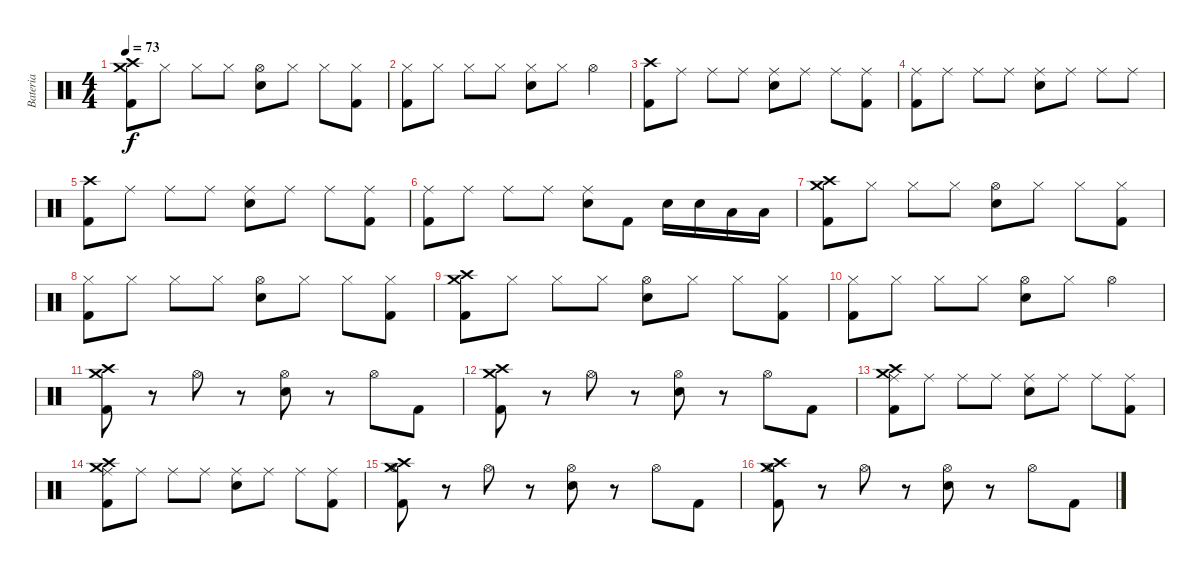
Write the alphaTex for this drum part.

\track ("Bateria" "Bateria") {instrument percussion}
\staff {score}
\articulation defaults
\ts (4 4)
\tempo 73
\clef neutral
\ks c
("Crash high (hit)" "Crash medium (hit)" "Kick (hit) 2").8{dy f} "Hi-Hat (closed)".8 "Hi-Hat (closed)".8 "Hi-Hat (closed)".8 ("Hi-Hat (open)" "Snare (hit) 2").8 "Hi-Hat (closed)".8 "Hi-Hat (closed)".8 ("Hi-Hat (closed)" "Kick (hit) 2").8 |
("Hi-Hat (closed)" "Kick (hit) 2").8 "Hi-Hat (closed)".8 "Hi-Hat (closed)".8 "Hi-Hat (closed)".8 ("Hi-Hat (closed)" "Snare (hit) 2").8 "Hi-Hat (closed)".8 "Hi-Hat (open)".4 |
("Crash high (hit)" "Kick (hit) 2").8 "Ride (middle)".8 "Ride (middle)".8 "Ride (middle)".8 ("Ride (middle)" "Snare (hit) 2").8 "Ride (middle)".8 "Ride (middle)".8 ("Ride (middle)" "Kick (hit) 2").8 |
("Ride (middle)" "Kick (hit) 2").8 "Ride (middle)".8 "Ride (middle)".8 "Ride (middle)".8 ("Ride (middle)" "Snare (hit) 2").8 "Ride (middle)".8 "Ride (middle)".8 "Ride (middle)".8 |
("Crash high (hit)" "Kick (hit) 2").8 "Ride (middle)".8 "Ride (middle)".8 "Ride (middle)".8 ("Ride (middle)" "Snare (hit) 2").8 "Ride (middle)".8 "Ride (middle)".8 ("Ride (middle)" "Kick (hit) 2").8 |
("Ride (middle)" "Kick (hit) 2").8 "Ride (middle)".8 "Ride (middle)".8 "Ride (middle)".8 ("Ride (middle)" "Snare (hit) 2").8 "Kick (hit) 2".8 "Snare (hit) 2".16 "Snare (hit) 2".16 "Low Tom (hit)".16 "Low Tom (hit)".16 |
("Crash high (hit)" "Crash medium (hit)" "Kick (hit) 2").8 "Hi-Hat (closed)".8 "Hi-Hat (closed)".8 "Hi-Hat (closed)".8 ("Hi-Hat (open)" "Snare (hit) 2").8 "Hi-Hat (closed)".8 "Hi-Hat (closed)".8 ("Hi-Hat (closed)" "Kick (hit) 2").8 |
("Hi-Hat (closed)" "Kick (hit) 2").8 "Hi-Hat (closed)".8 "Hi-Hat (closed)".8 "Hi-Hat (closed)".8 ("Hi-Hat (open)" "Snare (hit) 2").8 "Hi-Hat (closed)".8 "Hi-Hat (closed)".8 ("Hi-Hat (closed)" "Kick (hit) 2").8 |
("Crash high (hit)" "Crash medium (hit)" "Kick (hit) 2").8 "Hi-Hat (closed)".8 "Hi-Hat (closed)".8 "Hi-Hat (closed)".8 ("Hi-Hat (open)" "Snare (hit) 2").8 "Hi-Hat (closed)".8 "Hi-Hat (closed)".8 ("Hi-Hat (closed)" "Kick (hit) 2").8 |
("Hi-Hat (closed)" "Kick (hit) 2").8 "Hi-Hat (closed)".8 "Hi-Hat (closed)".8 "Hi-Hat (closed)".8 ("Hi-Hat (open)" "Snare (hit) 2").8 "Hi-Hat (closed)".8 "Hi-Hat (open)".4 |
("Crash medium (hit)" "Crash high (hit)" "Kick (hit) 2").8 r.8 "Hi-Hat (open)".8 r.8 ("Hi-Hat (open)" "Snare (hit) 2").8 r.8 "Hi-Hat (open)".8 "Kick (hit) 2".8 |
("Crash medium (hit)" "Crash high (hit)" "Kick (hit) 2").8 r.8 "Hi-Hat (open)".8 r.8 ("Hi-Hat (open)" "Snare (hit) 2").8 r.8 "Hi-Hat (open)".8 "Kick (hit) 2".8 |
("Crash medium (hit)" "Crash high (hit)" "Ride (middle)" "Kick (hit) 2").8 "Ride (middle)".8 "Ride (middle)".8 "Ride (middle)".8 ("Ride (middle)" "Snare (hit) 2").8 "Ride (middle)".8 "Ride (middle)".8 ("Ride (middle)" "Kick (hit) 2").8 |
("Crash medium (hit)" "Crash high (hit)" "Ride (middle)" "Kick (hit) 2").8 "Ride (middle)".8 "Ride (middle)".8 "Ride (middle)".8 ("Ride (middle)" "Snare (hit) 2").8 "Ride (middle)".8 "Ride (middle)".8 ("Ride (middle)" "Kick (hit) 2").8 |
("Crash medium (hit)" "Crash high (hit)" "Hi-Hat (open)" "Kick (hit) 2").8 r.8 "Hi-Hat (open)".8 r.8 ("Hi-Hat (open)" "Snare (hit) 2").8 r.8 "Hi-Hat (open)".8 "Kick (hit) 2".8 |
("Crash medium (hit)" "Crash high (hit)" "Hi-Hat (open)" "Kick (hit) 2").8 r.8 "Hi-Hat (open)".8 r.8 ("Hi-Hat (open)" "Snare (hit) 2").8 r.8 "Hi-Hat (open)".8 "Kick (hit) 2".8
